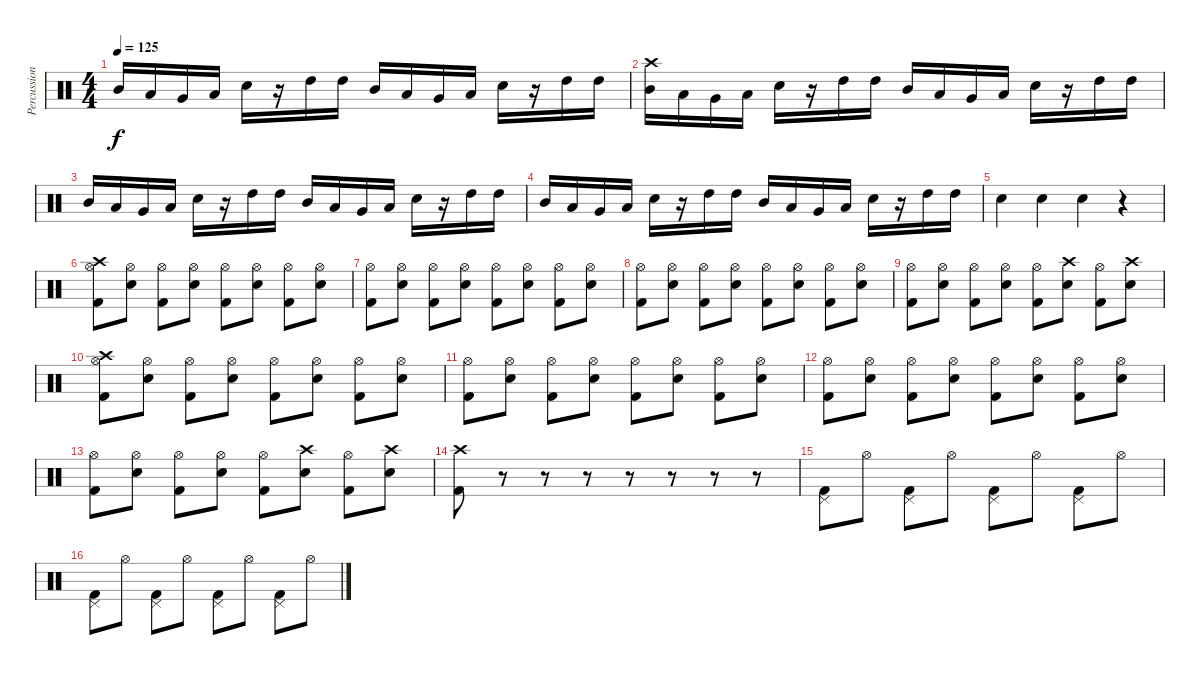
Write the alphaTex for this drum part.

\track ("Percussion" "Percussion") {instrument percussion}
\staff {score}
\articulation defaults
\ts (4 4)
\tempo 125
\clef neutral
\ks c "Mid Tom (hit)".16{dy f} "Low Tom (hit)".16 "Very Low Tom (hit)".16 "Low Floor Tom (hit)".16 "Electric Snare (hit)".16
r.16 "High Tom (hit)".16 "High Tom (hit)".16 "Mid Tom (hit)".16 "Low Tom (hit)".16 "Very Low Tom (hit)".16 "Low Floor Tom (hit)".16 "Electric Snare (hit)".16 r.16 "High Tom (hit)".16 "High Tom (hit)".16 |
("Crash high (hit)" "Mid Tom (hit)").16 "Low Tom (hit)".16 "Very Low Tom (hit)".16 "Low Floor Tom (hit)".16 "Electric Snare (hit)".16 r.16 "High Tom (hit)".16 "High Tom (hit)".16 "Mid Tom (hit)".16 "Low Tom (hit)".16 "Very Low Tom (hit)".16 "Low Floor Tom (hit)".16 "Electric Snare (hit)".16 r.16 "High Tom (hit)".16 "High Tom (hit)".16 |
"Mid Tom (hit)".16 "Low Tom (hit)".16 "Very Low Tom (hit)".16 "Low Floor Tom (hit)".16 "Electric Snare (hit)".16 r.16 "High Tom (hit)".16 "High Tom (hit)".16 "Mid Tom (hit)".16 "Low Tom (hit)".16 "Very Low Tom (hit)".16 "Low Floor Tom (hit)".16 "Electric Snare (hit)".16 r.16 "High Tom (hit)".16 "High Tom (hit)".16 |
"Mid Tom (hit)".16 "Low Tom (hit)".16 "Very Low Tom (hit)".16 "Low Floor Tom (hit)".16 "Electric Snare (hit)".16 r.16 "High Tom (hit)".16 "High Tom (hit)".16 "Mid Tom (hit)".16 "Low Tom (hit)".16 "Very Low Tom (hit)".16 "Low Floor Tom (hit)".16 "Electric Snare (hit)".16 r.16 "High Tom (hit)".16 "High Tom (hit)".16 |
"Electric Snare (hit)".4 "Electric Snare (hit)".4 "Electric Snare (hit)".4 r.4 |
("Hi-Hat (open)" "Crash high (hit)" "Kick (hit) 2").8 ("Hi-Hat (open)" "Electric Snare (hit)").8 ("Hi-Hat (open)" "Kick (hit) 2").8 ("Hi-Hat (open)" "Electric Snare (hit)").8 ("Hi-Hat (open)" "Kick (hit) 2").8 ("Hi-Hat (open)" "Electric Snare (hit)").8 ("Hi-Hat (open)" "Kick (hit) 2").8 ("Hi-Hat (open)" "Electric Snare (hit)").8 |
("Hi-Hat (open)" "Kick (hit) 2").8 ("Hi-Hat (open)" "Electric Snare (hit)").8 ("Hi-Hat (open)" "Kick (hit) 2").8 ("Hi-Hat (open)" "Electric Snare (hit)").8 ("Hi-Hat (open)" "Kick (hit) 2").8 ("Hi-Hat (open)" "Electric Snare (hit)").8 ("Hi-Hat (open)" "Kick (hit) 2").8 ("Hi-Hat (open)" "Electric Snare (hit)").8 |
("Hi-Hat (open)" "Kick (hit) 2").8 ("Hi-Hat (open)" "Electric Snare (hit)").8 ("Hi-Hat (open)" "Kick (hit) 2").8 ("Hi-Hat (open)" "Electric Snare (hit)").8 ("Hi-Hat (open)" "Kick (hit) 2").8 ("Hi-Hat (open)" "Electric Snare (hit)").8 ("Hi-Hat (open)" "Kick (hit) 2").8 ("Hi-Hat (open)" "Electric Snare (hit)").8 |
("Hi-Hat (open)" "Kick (hit) 2").8 ("Hi-Hat (open)" "Electric Snare (hit)").8 ("Hi-Hat (open)" "Kick (hit) 2").8 ("Hi-Hat (open)" "Electric Snare (hit)").8 ("Hi-Hat (open)" "Kick (hit) 2").8 ("Crash high (hit)" "Electric Snare (hit)").8 ("Hi-Hat (open)" "Kick (hit) 2").8 ("Crash high (hit)" "Electric Snare (hit)").8 |
("Hi-Hat (open)" "Crash high (hit)" "Kick (hit) 2").8 ("Hi-Hat (open)" "Electric Snare (hit)").8 ("Hi-Hat (open)" "Kick (hit) 2").8 ("Hi-Hat (open)" "Electric Snare (hit)").8 ("Hi-Hat (open)" "Kick (hit) 2").8 ("Hi-Hat (open)" "Electric Snare (hit)").8 ("Hi-Hat (open)" "Kick (hit) 2").8 ("Hi-Hat (open)" "Electric Snare (hit)").8 |
("Hi-Hat (open)" "Kick (hit) 2").8 ("Hi-Hat (open)" "Electric Snare (hit)").8 ("Hi-Hat (open)" "Kick (hit) 2").8 ("Hi-Hat (open)" "Electric Snare (hit)").8 ("Hi-Hat (open)" "Kick (hit) 2").8 ("Hi-Hat (open)" "Electric Snare (hit)").8 ("Hi-Hat (open)" "Kick (hit) 2").8 ("Hi-Hat (open)" "Electric Snare (hit)").8 |
("Hi-Hat (open)" "Kick (hit) 2").8 ("Hi-Hat (open)" "Electric Snare (hit)").8 ("Hi-Hat (open)" "Kick (hit) 2").8 ("Hi-Hat (open)" "Electric Snare (hit)").8 ("Hi-Hat (open)" "Kick (hit) 2").8 ("Hi-Hat (open)" "Electric Snare (hit)").8 ("Hi-Hat (open)" "Kick (hit) 2").8 ("Hi-Hat (open)" "Electric Snare (hit)").8 |
("Hi-Hat (open)" "Kick (hit) 2").8 ("Hi-Hat (open)" "Electric Snare (hit)").8 ("Hi-Hat (open)" "Kick (hit) 2").8 ("Hi-Hat (open)" "Electric Snare (hit)").8 ("Hi-Hat (open)" "Kick (hit) 2").8 ("Crash high (hit)" "Electric Snare (hit)").8 ("Hi-Hat (open)" "Kick (hit) 2").8 ("Crash high (hit)" "Electric Snare (hit)").8 |
("Crash high (hit)" "Kick (hit) 2").8 r.8 r.8 r.8 r.8 r.8 r.8 r.8 |
("Pedal Hi-Hat (hit)" "Kick (hit) 2").8 "Hi-Hat (open)".8 ("Pedal Hi-Hat (hit)" "Kick (hit) 2").8 "Hi-Hat (open)".8 ("Pedal Hi-Hat (hit)" "Kick (hit) 2").8 "Hi-Hat (open)".8 ("Pedal Hi-Hat (hit)" "Kick (hit) 2").8 "Hi-Hat (open)".8 |
("Pedal Hi-Hat (hit)" "Kick (hit) 2").8 "Hi-Hat (open)".8 ("Pedal Hi-Hat (hit)" "Kick (hit) 2").8 "Hi-Hat (open)".8 ("Pedal Hi-Hat (hit)" "Kick (hit) 2").8 "Hi-Hat (open)".8 ("Pedal Hi-Hat (hit)" "Kick (hit) 2").8 "Hi-Hat (open)".8
